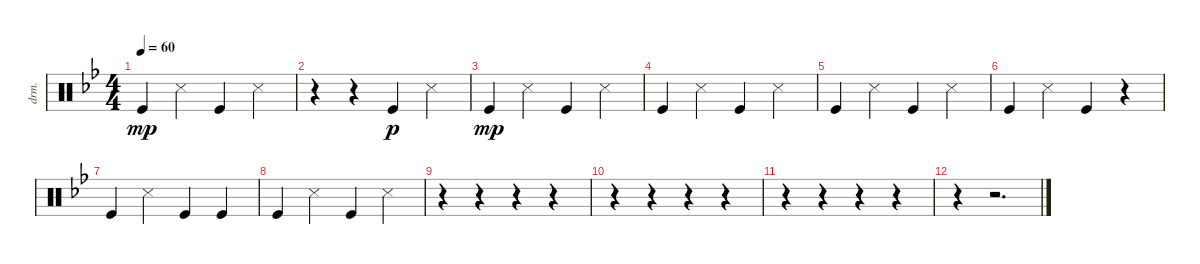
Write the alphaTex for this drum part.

\defaultSystemsLayout 4
\bracketExtendMode groupsimilarinstruments
\otherSystemsTrackNameOrientation horizontal
\track ("Percussion" "drm.") {instrument percussion}
\staff {score}
\articulation defaults
\ts (4 4)
\tempo 60
\clef neutral
\ks bb "Kick (hit)"{acc forcenatural}.4{dy mp} "Snare (side stick) 3"{acc forcenatural}.4 "Kick (hit)"{acc forcenatural}.4 "Snare (side stick) 3"{acc forcenatural}.4
|
r.4 r.4 "Kick (hit)"{acc forcenatural}.4{dy p} "Snare (side stick) 3"{acc forcenatural}.4 |
"Kick (hit)"{acc forcenatural}.4{dy mp} "Snare (side stick) 3"{acc forcenatural}.4 "Kick (hit)"{acc forcenatural}.4 "Snare (side stick) 3"{acc forcenatural}.4 |
"Kick (hit)"{acc forcenatural}.4 "Snare (side stick) 3"{acc forcenatural}.4 "Kick (hit)"{acc forcenatural}.4 "Snare (side stick) 3"{acc forcenatural}.4 |
"Kick (hit)"{acc forcenatural}.4 "Snare (side stick) 3"{acc forcenatural}.4 "Kick (hit)"{acc forcenatural}.4 "Snare (side stick) 3"{acc forcenatural}.4 |
"Kick (hit)"{acc forcenatural}.4 "Snare (side stick) 3"{acc forcenatural}.4 "Kick (hit)"{acc forcenatural}.4 r.4 |
"Kick (hit)"{acc forcenatural}.4 "Snare (side stick) 3"{acc forcenatural}.4 "Kick (hit)"{acc forcenatural}.4 "Kick (hit)"{acc forcenatural}.4 |
"Kick (hit)"{acc forcenatural}.4 "Snare (side stick) 3"{acc forcenatural}.4 "Kick (hit)"{acc forcenatural}.4 "Snare (side stick) 3"{acc forcenatural}.4 |
r.4 r.4 r.4 r.4 |
r.4 r.4 r.4 r.4 |
r.4 r.4 r.4 r.4 |
r.4 r.2{d}
